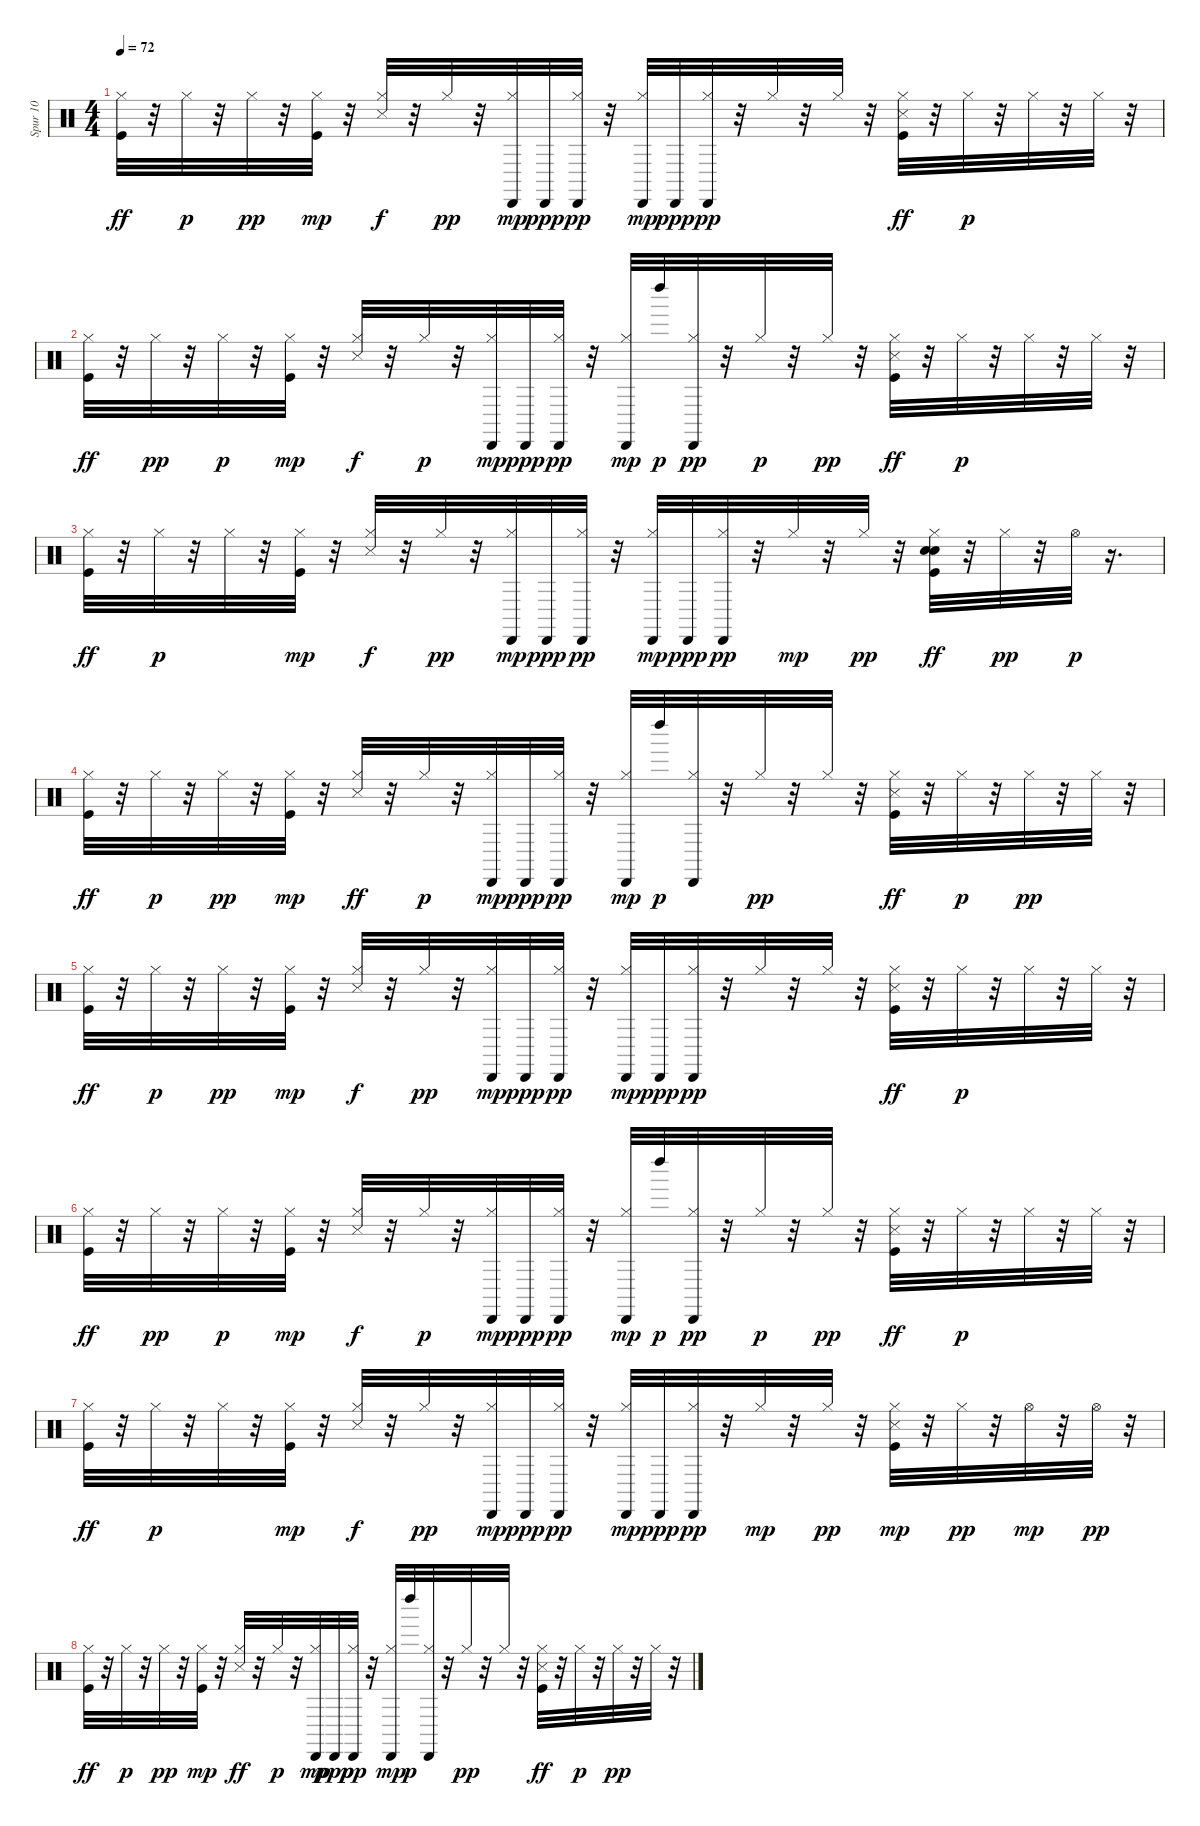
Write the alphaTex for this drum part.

\track ("Spur 10" "Spur 10") {instrument percussion}
\staff {score}
\articulation defaults
\ts (4 4)
\tempo 72
\clef neutral
\ks c
("Kick (hit)" "Hi-Hat (closed)").32{dy ff} r.32 "Hi-Hat (closed)".32{dy p} r.32 "Hi-Hat (closed)".32{dy pp} r.32 ("Hi-Hat (closed)" "Kick (hit)").32{dy mp} r.32 ("Hi-Hat (closed)" "Snare (side stick) 3").32{dy f} r.32 "Hi-Hat (closed)".32{dy pp} r.32 ("Hi-Hat (closed)" "Cabasa (hit)").32{dy mp} "Cabasa (hit)".32{dy ppp} ("Hi-Hat (closed)" "Cabasa (hit)").32{dy pp} r.32 ("Hi-Hat (closed)" "Cabasa (hit)").32{dy mp} "Cabasa (hit)".32{dy ppp} ("Cabasa (hit)" "Hi-Hat (closed)").32{dy pp} r.32 "Hi-Hat (closed)".32 r.32 "Hi-Hat (closed)".32 r.32 ("Snare (side stick) 3" "Kick (hit)" "Hi-Hat (closed)").32{dy ff} r.32 "Hi-Hat (closed)".32{dy p} r.32 "Hi-Hat (closed)".32 r.32 "Hi-Hat (closed)".32 r.32 |
("Kick (hit)" "Hi-Hat (closed)").32{dy ff} r.32 "Hi-Hat (closed)".32{dy pp} r.32 "Hi-Hat (closed)".32{dy p} r.32 ("Hi-Hat (closed)" "Kick (hit)").32{dy mp} r.32 ("Hi-Hat (closed)" "Snare (side stick) 3").32{dy f} r.32 "Hi-Hat (closed)".32{dy p} r.32 ("Hi-Hat (closed)" "Cabasa (hit)").32{dy mp} "Cabasa (hit)".32{dy ppp} ("Hi-Hat (closed)" "Cabasa (hit)").32{dy pp} r.32 ("Hi-Hat (closed)" "Cabasa (hit)").32{dy mp} "Left Maraca (hit)".32{dy p} ("Cabasa (hit)" "Hi-Hat (closed)").32{dy pp} r.32 "Hi-Hat (closed)".32{dy p} r.32 "Hi-Hat (closed)".32{dy pp} r.32 ("Snare (side stick) 3" "Kick (hit)" "Hi-Hat (closed)").32{dy ff} r.32 "Hi-Hat (closed)".32{dy p} r.32 "Hi-Hat (closed)".32 r.32 "Hi-Hat (closed)".32 r.32 |
("Kick (hit)" "Hi-Hat (closed)").32{dy ff} r.32 "Hi-Hat (closed)".32{dy p} r.32 "Hi-Hat (closed)".32 r.32 ("Hi-Hat (closed)" "Kick (hit)").32{dy mp} r.32 ("Hi-Hat (closed)" "Snare (side stick) 3").32{dy f} r.32 "Hi-Hat (closed)".32{dy pp} r.32 ("Hi-Hat (closed)" "Cabasa (hit)").32{dy mp} "Cabasa (hit)".32{dy ppp} ("Hi-Hat (closed)" "Cabasa (hit)").32{dy pp} r.32 ("Hi-Hat (closed)" "Cabasa (hit)").32{dy mp} "Cabasa (hit)".32{dy ppp} ("Cabasa (hit)" "Hi-Hat (closed)").32{dy pp} r.32 "Hi-Hat (closed)".32{dy mp} r.32 "Hi-Hat (closed)".32{dy pp} r.32 ("Kick (hit)" "Hi-Hat (closed)" "Snare (hit) 2" "Hand Clap (hit)").32{dy ff} r.32 "Hi-Hat (closed)".32{dy pp} r.32 "Hi-Hat (open)".32{dy p} r.16{d} |
("Kick (hit)" "Hi-Hat (closed)").32{dy ff} r.32 "Hi-Hat (closed)".32{dy p} r.32 "Hi-Hat (closed)".32{dy pp} r.32 ("Hi-Hat (closed)" "Kick (hit)").32{dy mp} r.32 ("Hi-Hat (closed)" "Snare (side stick) 3").32{dy ff} r.32 "Hi-Hat (closed)".32{dy p} r.32 ("Hi-Hat (closed)" "Cabasa (hit)").32{dy mp} "Cabasa (hit)".32{dy ppp} ("Hi-Hat (closed)" "Cabasa (hit)").32{dy pp} r.32 ("Cabasa (hit)" "Hi-Hat (closed)").32{dy mp} "Left Maraca (hit)".32{dy p} ("Cabasa (hit)" "Hi-Hat (closed)").32 r.32 "Hi-Hat (closed)".32{dy pp} r.32 "Hi-Hat (closed)".32 r.32 ("Snare (side stick) 3" "Kick (hit)" "Hi-Hat (closed)").32{dy ff} r.32 "Hi-Hat (closed)".32{dy p} r.32 "Hi-Hat (closed)".32{dy pp} r.32 "Hi-Hat (closed)".32 r.32 |
("Kick (hit)" "Hi-Hat (closed)").32{dy ff} r.32 "Hi-Hat (closed)".32{dy p} r.32 "Hi-Hat (closed)".32{dy pp} r.32 ("Hi-Hat (closed)" "Kick (hit)").32{dy mp} r.32 ("Hi-Hat (closed)" "Snare (side stick) 3").32{dy f} r.32 "Hi-Hat (closed)".32{dy pp} r.32 ("Hi-Hat (closed)" "Cabasa (hit)").32{dy mp} "Cabasa (hit)".32{dy ppp} ("Hi-Hat (closed)" "Cabasa (hit)").32{dy pp} r.32 ("Hi-Hat (closed)" "Cabasa (hit)").32{dy mp} "Cabasa (hit)".32{dy ppp} ("Cabasa (hit)" "Hi-Hat (closed)").32{dy pp} r.32 "Hi-Hat (closed)".32 r.32 "Hi-Hat (closed)".32 r.32 ("Snare (side stick) 3" "Kick (hit)" "Hi-Hat (closed)").32{dy ff} r.32 "Hi-Hat (closed)".32{dy p} r.32 "Hi-Hat (closed)".32 r.32 "Hi-Hat (closed)".32 r.32 |
("Kick (hit)" "Hi-Hat (closed)").32{dy ff} r.32 "Hi-Hat (closed)".32{dy pp} r.32 "Hi-Hat (closed)".32{dy p} r.32 ("Hi-Hat (closed)" "Kick (hit)").32{dy mp} r.32 ("Hi-Hat (closed)" "Snare (side stick) 3").32{dy f} r.32 "Hi-Hat (closed)".32{dy p} r.32 ("Hi-Hat (closed)" "Cabasa (hit)").32{dy mp} "Cabasa (hit)".32{dy ppp} ("Hi-Hat (closed)" "Cabasa (hit)").32{dy pp} r.32 ("Hi-Hat (closed)" "Cabasa (hit)").32{dy mp} "Left Maraca (hit)".32{dy p} ("Cabasa (hit)" "Hi-Hat (closed)").32{dy pp} r.32 "Hi-Hat (closed)".32{dy p} r.32 "Hi-Hat (closed)".32{dy pp} r.32 ("Snare (side stick) 3" "Kick (hit)" "Hi-Hat (closed)").32{dy ff} r.32 "Hi-Hat (closed)".32{dy p} r.32 "Hi-Hat (closed)".32 r.32 "Hi-Hat (closed)".32 r.32 |
("Kick (hit)" "Hi-Hat (closed)").32{dy ff} r.32 "Hi-Hat (closed)".32{dy p} r.32 "Hi-Hat (closed)".32 r.32 ("Hi-Hat (closed)" "Kick (hit)").32{dy mp} r.32 ("Hi-Hat (closed)" "Snare (side stick) 3").32{dy f} r.32 "Hi-Hat (closed)".32{dy pp} r.32 ("Hi-Hat (closed)" "Cabasa (hit)").32{dy mp} "Cabasa (hit)".32{dy ppp} ("Hi-Hat (closed)" "Cabasa (hit)").32{dy pp} r.32 ("Hi-Hat (closed)" "Cabasa (hit)").32{dy mp} "Cabasa (hit)".32{dy ppp} ("Cabasa (hit)" "Hi-Hat (closed)").32{dy pp} r.32 "Hi-Hat (closed)".32{dy mp} r.32 "Hi-Hat (closed)".32{dy pp} r.32 ("Snare (side stick) 3" "Kick (hit)" "Hi-Hat (closed)").32{dy mp} r.32 "Hi-Hat (closed)".32{dy pp} r.32 "Hi-Hat (open)".32{dy mp} r.32 "Hi-Hat (open)".32{dy pp} r.32 |
("Kick (hit)" "Hi-Hat (closed)").32{dy ff} r.32 "Hi-Hat (closed)".32{dy p} r.32 "Hi-Hat (closed)".32{dy pp} r.32 ("Hi-Hat (closed)" "Kick (hit)").32{dy mp} r.32 ("Hi-Hat (closed)" "Snare (side stick) 3").32{dy ff} r.32 "Hi-Hat (closed)".32{dy p} r.32 ("Hi-Hat (closed)" "Cabasa (hit)").32{dy mp} "Cabasa (hit)".32{dy ppp} ("Hi-Hat (closed)" "Cabasa (hit)").32{dy pp} r.32 ("Cabasa (hit)" "Hi-Hat (closed)").32{dy mp} "Left Maraca (hit)".32{dy p} ("Cabasa (hit)" "Hi-Hat (closed)").32 r.32 "Hi-Hat (closed)".32{dy pp} r.32 "Hi-Hat (closed)".32 r.32 ("Snare (side stick) 3" "Kick (hit)" "Hi-Hat (closed)").32{dy ff} r.32 "Hi-Hat (closed)".32{dy p} r.32 "Hi-Hat (closed)".32{dy pp} r.32 "Hi-Hat (closed)".32 r.32
